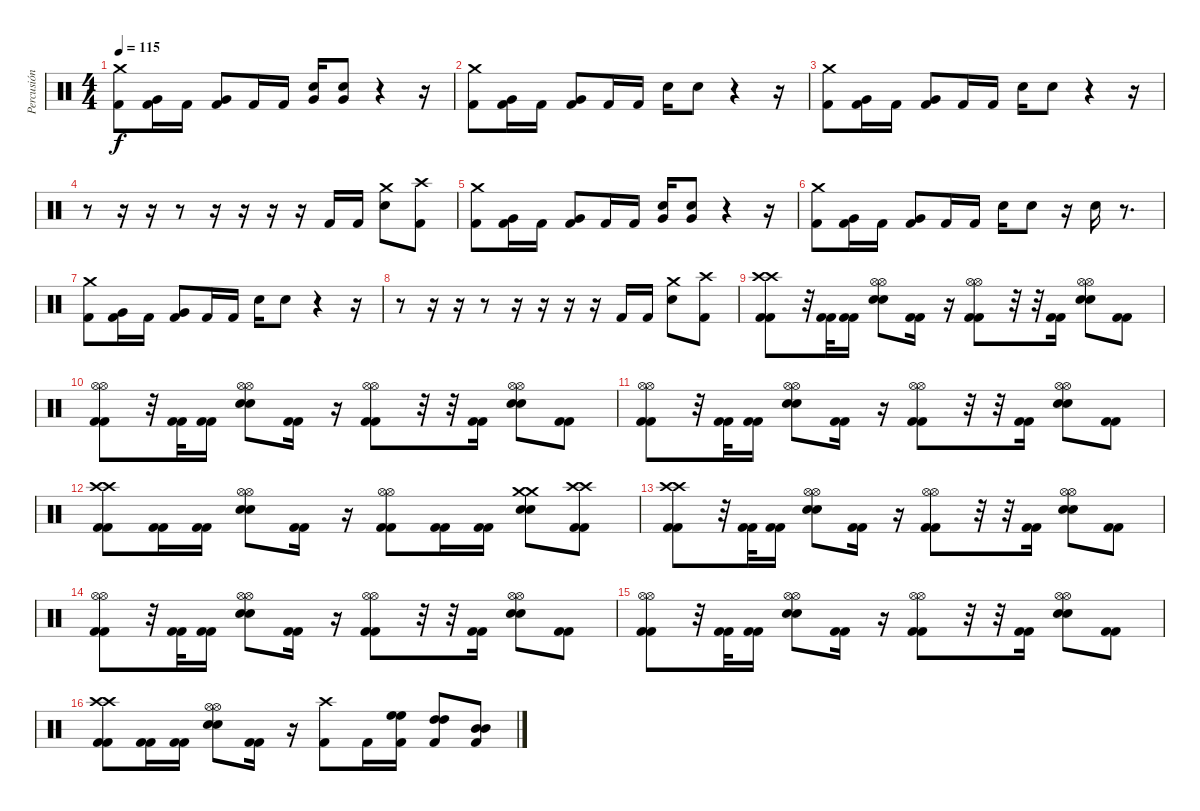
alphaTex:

\track ("Percusión" "Percusión") {instrument percussion}
\staff {score}
\articulation defaults
\ts (4 4)
\tempo 115
\clef neutral
\ks c
("Crash medium (hit)" "Kick (hit) 2").8{dy f} ("Very Low Tom (hit)" "Kick (hit) 2").16 "Kick (hit) 2".16 ("Very Low Tom (hit)" "Kick (hit) 2").8 "Kick (hit) 2".16 "Kick (hit) 2".16 ("Electric Snare (hit)" "Very Low Tom (hit)").16 ("Electric Snare (hit)" "Very Low Tom (hit)").8 r.4 r.16 |
("Crash medium (hit)" "Kick (hit) 2").8 ("Very Low Tom (hit)" "Kick (hit) 2").16 "Kick (hit) 2".16 ("Very Low Tom (hit)" "Kick (hit) 2").8 "Kick (hit) 2".16 "Kick (hit) 2".16 "Electric Snare (hit)".16 "Electric Snare (hit)".8 r.4 r.16 |
("Crash medium (hit)" "Kick (hit) 2").8 ("Very Low Tom (hit)" "Kick (hit) 2").16 "Kick (hit) 2".16 ("Very Low Tom (hit)" "Kick (hit) 2").8 "Kick (hit) 2".16 "Kick (hit) 2".16 "Electric Snare (hit)".16 "Electric Snare (hit)".8 r.4 r.16 |
r.8 r.16 r.16 r.8 r.16 r.16 r.16 r.16 "Kick (hit) 2".16 "Kick (hit) 2".16 ("Crash medium (hit)" "Electric Snare (hit)").8 ("Crash high (hit)" "Kick (hit) 2").8 |
("Crash medium (hit)" "Kick (hit) 2").8 ("Very Low Tom (hit)" "Kick (hit) 2").16 "Kick (hit) 2".16 ("Very Low Tom (hit)" "Kick (hit) 2").8 "Kick (hit) 2".16 "Kick (hit) 2".16 ("Electric Snare (hit)" "Very Low Tom (hit)").16 ("Electric Snare (hit)" "Very Low Tom (hit)").8 r.4 r.16 |
("Crash medium (hit)" "Kick (hit) 2").8 ("Very Low Tom (hit)" "Kick (hit) 2").16 "Kick (hit) 2".16 ("Very Low Tom (hit)" "Kick (hit) 2").8 "Kick (hit) 2".16 "Kick (hit) 2".16 "Electric Snare (hit)".16 "Electric Snare (hit)".8 r.16 "Electric Snare (hit)".16 r.8{d} |
("Crash medium (hit)" "Kick (hit) 2").8 ("Very Low Tom (hit)" "Kick (hit) 2").16 "Kick (hit) 2".16 ("Very Low Tom (hit)" "Kick (hit) 2").8 "Kick (hit) 2".16 "Kick (hit) 2".16 "Electric Snare (hit)".16 "Electric Snare (hit)".8 r.4 r.16 |
r.8 r.16 r.16 r.8 r.16 r.16 r.16 r.16 "Kick (hit) 2".16 "Kick (hit) 2".16 ("Crash medium (hit)" "Electric Snare (hit)").8 ("Crash high (hit)" "Kick (hit) 2").8 |
("Crash high (hit)" "Crash high (hit)" "Kick (hit) 2" "Kick (hit) 2").8 r.32 ("Kick (hit) 2" "Kick (hit) 2").32 ("Kick (hit) 2" "Kick (hit) 2").16 ("Hi-Hat (open)" "Hi-Hat (open)" "Electric Snare (hit)" "Electric Snare (hit)").8 ("Kick (hit) 2" "Kick (hit) 2").16 r.16 ("Hi-Hat (open)" "Hi-Hat (open)" "Kick (hit) 2" "Kick (hit) 2").8 r.32 r.32 ("Kick (hit) 2" "Kick (hit) 2").16 ("Hi-Hat (open)" "Hi-Hat (open)" "Electric Snare (hit)" "Electric Snare (hit)").8 ("Kick (hit) 2" "Kick (hit) 2").8 |
("Hi-Hat (open)" "Hi-Hat (open)" "Kick (hit) 2" "Kick (hit) 2").8 r.32 ("Kick (hit) 2" "Kick (hit) 2").32 ("Kick (hit) 2" "Kick (hit) 2").16 ("Hi-Hat (open)" "Hi-Hat (open)" "Electric Snare (hit)" "Electric Snare (hit)").8 ("Kick (hit) 2" "Kick (hit) 2").16 r.16 ("Hi-Hat (open)" "Hi-Hat (open)" "Kick (hit) 2" "Kick (hit) 2").8 r.32 r.32 ("Kick (hit) 2" "Kick (hit) 2").16 ("Hi-Hat (open)" "Hi-Hat (open)" "Electric Snare (hit)" "Electric Snare (hit)").8 ("Kick (hit) 2" "Kick (hit) 2").8 |
("Hi-Hat (open)" "Hi-Hat (open)" "Kick (hit) 2" "Kick (hit) 2").8 r.32 ("Kick (hit) 2" "Kick (hit) 2").32 ("Kick (hit) 2" "Kick (hit) 2").16 ("Hi-Hat (open)" "Hi-Hat (open)" "Electric Snare (hit)" "Electric Snare (hit)").8 ("Kick (hit) 2" "Kick (hit) 2").16 r.16 ("Hi-Hat (open)" "Hi-Hat (open)" "Kick (hit) 2" "Kick (hit) 2").8 r.32 r.32 ("Kick (hit) 2" "Kick (hit) 2").16 ("Hi-Hat (open)" "Hi-Hat (open)" "Electric Snare (hit)" "Electric Snare (hit)").8 ("Kick (hit) 2" "Kick (hit) 2").8 |
("Crash high (hit)" "Crash high (hit)" "Kick (hit) 2" "Kick (hit) 2").8 ("Kick (hit) 2" "Kick (hit) 2").16 ("Kick (hit) 2" "Kick (hit) 2").16 ("Hi-Hat (open)" "Hi-Hat (open)" "Electric Snare (hit)" "Electric Snare (hit)").8 ("Kick (hit) 2" "Kick (hit) 2").16 r.16 ("Hi-Hat (open)" "Hi-Hat (open)" "Kick (hit) 2" "Kick (hit) 2").8 ("Kick (hit) 2" "Kick (hit) 2").16 ("Kick (hit) 2" "Kick (hit) 2").16 ("Crash medium (hit)" "Crash medium (hit)" "Electric Snare (hit)" "Electric Snare (hit)").8 ("Crash high (hit)" "Crash high (hit)" "Kick (hit) 2" "Kick (hit) 2").8 |
("Crash high (hit)" "Crash high (hit)" "Kick (hit) 2" "Kick (hit) 2").8 r.32 ("Kick (hit) 2" "Kick (hit) 2").32 ("Kick (hit) 2" "Kick (hit) 2").16 ("Hi-Hat (open)" "Hi-Hat (open)" "Electric Snare (hit)" "Electric Snare (hit)").8 ("Kick (hit) 2" "Kick (hit) 2").16 r.16 ("Hi-Hat (open)" "Hi-Hat (open)" "Kick (hit) 2" "Kick (hit) 2").8 r.32 r.32 ("Kick (hit) 2" "Kick (hit) 2").16 ("Hi-Hat (open)" "Hi-Hat (open)" "Electric Snare (hit)" "Electric Snare (hit)").8 ("Kick (hit) 2" "Kick (hit) 2").8 |
("Hi-Hat (open)" "Hi-Hat (open)" "Kick (hit) 2" "Kick (hit) 2").8 r.32 ("Kick (hit) 2" "Kick (hit) 2").32 ("Kick (hit) 2" "Kick (hit) 2").16 ("Hi-Hat (open)" "Hi-Hat (open)" "Electric Snare (hit)" "Electric Snare (hit)").8 ("Kick (hit) 2" "Kick (hit) 2").16 r.16 ("Hi-Hat (open)" "Hi-Hat (open)" "Kick (hit) 2" "Kick (hit) 2").8 r.32 r.32 ("Kick (hit) 2" "Kick (hit) 2").16 ("Hi-Hat (open)" "Hi-Hat (open)" "Electric Snare (hit)" "Electric Snare (hit)").8 ("Kick (hit) 2" "Kick (hit) 2").8 |
("Hi-Hat (open)" "Hi-Hat (open)" "Kick (hit) 2" "Kick (hit) 2").8 r.32 ("Kick (hit) 2" "Kick (hit) 2").32 ("Kick (hit) 2" "Kick (hit) 2").16 ("Hi-Hat (open)" "Hi-Hat (open)" "Electric Snare (hit)" "Electric Snare (hit)").8 ("Kick (hit) 2" "Kick (hit) 2").16 r.16 ("Hi-Hat (open)" "Hi-Hat (open)" "Kick (hit) 2" "Kick (hit) 2").8 r.32 r.32 ("Kick (hit) 2" "Kick (hit) 2").16 ("Hi-Hat (open)" "Hi-Hat (open)" "Electric Snare (hit)" "Electric Snare (hit)").8 ("Kick (hit) 2" "Kick (hit) 2").8 |
("Crash high (hit)" "Crash high (hit)" "Kick (hit) 2" "Kick (hit) 2").8 ("Kick (hit) 2" "Kick (hit) 2").16 ("Kick (hit) 2" "Kick (hit) 2").16 ("Hi-Hat (open)" "Hi-Hat (open)" "Electric Snare (hit)" "Electric Snare (hit)").8 ("Kick (hit) 2" "Kick (hit) 2").16 r.16 ("Crash high (hit)" "Kick (hit) 2").8 "Kick (hit) 2".16 ("High Floor Tom (hit)" "High Floor Tom (hit)" "Kick (hit) 2").16 ("High Tom (hit)" "High Tom (hit)" "Kick (hit) 2").8 ("Mid Tom (hit)" "Mid Tom (hit)" "Kick (hit) 2").8
